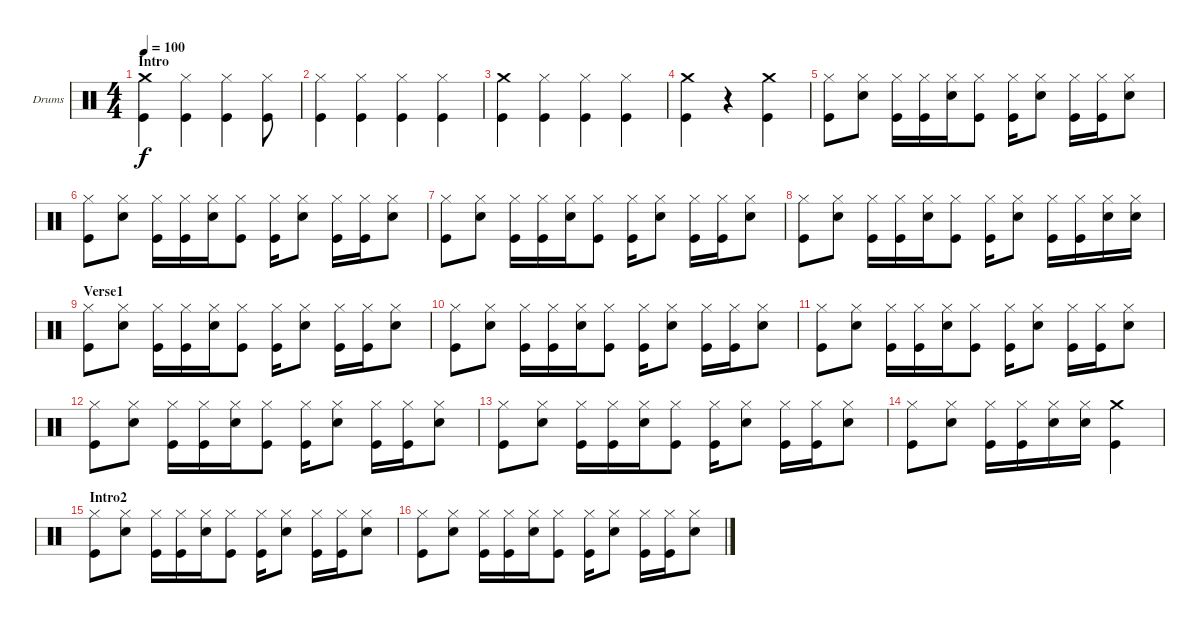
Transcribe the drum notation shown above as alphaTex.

\defaultSystemsLayout 4
\bracketExtendMode groupsimilarinstruments
\firstSystemTrackNameOrientation horizontal
\otherSystemsTrackNameOrientation horizontal
\track ("Drumkit" "Drums") {instrument percussion}
\staff {score}
\articulation defaults
\ts (4 4)
\section ("" "Intro")
\tempo 100
\clef neutral
\scale
0.474178
\ks c
("Crash medium (hit)" "Kick (hit)").4{dy f} ("Hi-Hat (closed)" "Kick (hit)").4 ("Hi-Hat (closed)" "Kick (hit)").4 ("Hi-Hat (closed)" "Kick (hit)").8 |
\scale
0.262911 ("Hi-Hat (closed)" "Kick (hit)").4 ("Hi-Hat (closed)" "Kick (hit)").4 ("Hi-Hat (closed)" "Kick (hit)").4 ("Hi-Hat (closed)" "Kick (hit)").4 |
\scale
0.262911 ("Crash medium (hit)" "Kick (hit)").4 ("Hi-Hat (closed)" "Kick (hit)").4 ("Hi-Hat (closed)" "Kick (hit)").4 ("Hi-Hat (closed)" "Kick (hit)").4 |
\scale
0.333333 ("Crash medium (hit)" "Kick (hit)").4 r.4 ("Crash medium (hit)" "Kick (hit)").4 |
\scale
0.333333 ("Hi-Hat (closed)" "Kick (hit)").8 ("Hi-Hat (closed)" "Snare (hit) 2").8 ("Hi-Hat (closed)" "Kick (hit)").16 ("Hi-Hat (closed)" "Kick (hit)").16 ("Hi-Hat (closed)" "Snare (hit) 2").16 ("Hi-Hat (closed)" "Kick (hit)").8 ("Hi-Hat (closed)" "Kick (hit)").16 ("Hi-Hat (closed)" "Snare (hit) 2").8 ("Hi-Hat (closed)" "Kick (hit)").16 ("Hi-Hat (closed)" "Kick (hit)").16 ("Hi-Hat (closed)" "Snare (hit) 2").8 |
\scale
0.333333 ("Hi-Hat (closed)" "Kick (hit)").8 ("Hi-Hat (closed)" "Snare (hit) 2").8 ("Hi-Hat (closed)" "Kick (hit)").16 ("Hi-Hat (closed)" "Kick (hit)").16 ("Hi-Hat (closed)" "Snare (hit) 2").16 ("Hi-Hat (closed)" "Kick (hit)").8 ("Hi-Hat (closed)" "Kick (hit)").16 ("Hi-Hat (closed)" "Snare (hit) 2").8 ("Hi-Hat (closed)" "Kick (hit)").16 ("Hi-Hat (closed)" "Kick (hit)").16 ("Hi-Hat (closed)" "Snare (hit) 2").8 |
\scale
0.333333 ("Hi-Hat (closed)" "Kick (hit)").8 ("Hi-Hat (closed)" "Snare (hit) 2").8 ("Hi-Hat (closed)" "Kick (hit)").16 ("Hi-Hat (closed)" "Kick (hit)").16 ("Hi-Hat (closed)" "Snare (hit) 2").16 ("Hi-Hat (closed)" "Kick (hit)").8 ("Hi-Hat (closed)" "Kick (hit)").16 ("Hi-Hat (closed)" "Snare (hit) 2").8 ("Hi-Hat (closed)" "Kick (hit)").16 ("Hi-Hat (closed)" "Kick (hit)").16 ("Hi-Hat (closed)" "Snare (hit) 2").8 |
\scale
0.333333 ("Hi-Hat (closed)" "Kick (hit)").8 ("Hi-Hat (closed)" "Snare (hit) 2").8 ("Hi-Hat (closed)" "Kick (hit)").16 ("Hi-Hat (closed)" "Kick (hit)").16 ("Hi-Hat (closed)" "Snare (hit) 2").16 ("Hi-Hat (closed)" "Kick (hit)").8 ("Hi-Hat (closed)" "Kick (hit)").16 ("Hi-Hat (closed)" "Snare (hit) 2").8 ("Hi-Hat (closed)" "Kick (hit)").16 ("Hi-Hat (closed)" "Kick (hit)").16 ("Hi-Hat (closed)" "Snare (hit) 2").16 ("Hi-Hat (closed)" "Snare (hit) 2").16 |
\section ("" "Verse1")
\scale
0.333333 ("Hi-Hat (closed)" "Kick (hit)").8 ("Hi-Hat (closed)" "Snare (hit) 2").8 ("Hi-Hat (closed)" "Kick (hit)").16 ("Hi-Hat (closed)" "Kick (hit)").16 ("Hi-Hat (closed)" "Snare (hit) 2").16 ("Hi-Hat (closed)" "Kick (hit)").8 ("Hi-Hat (closed)" "Kick (hit)").16 ("Hi-Hat (closed)" "Snare (hit) 2").8 ("Hi-Hat (closed)" "Kick (hit)").16 ("Hi-Hat (closed)" "Kick (hit)").16 ("Hi-Hat (closed)" "Snare (hit) 2").8 |
\scale
0.333333 ("Hi-Hat (closed)" "Kick (hit)").8 ("Hi-Hat (closed)" "Snare (hit) 2").8 ("Hi-Hat (closed)" "Kick (hit)").16 ("Hi-Hat (closed)" "Kick (hit)").16 ("Hi-Hat (closed)" "Snare (hit) 2").16 ("Hi-Hat (closed)" "Kick (hit)").8 ("Hi-Hat (closed)" "Kick (hit)").16 ("Hi-Hat (closed)" "Snare (hit) 2").8 ("Hi-Hat (closed)" "Kick (hit)").16 ("Hi-Hat (closed)" "Kick (hit)").16 ("Hi-Hat (closed)" "Snare (hit) 2").8 |
\scale
0.333333 ("Hi-Hat (closed)" "Kick (hit)").8 ("Hi-Hat (closed)" "Snare (hit) 2").8 ("Hi-Hat (closed)" "Kick (hit)").16 ("Hi-Hat (closed)" "Kick (hit)").16 ("Hi-Hat (closed)" "Snare (hit) 2").16 ("Hi-Hat (closed)" "Kick (hit)").8 ("Hi-Hat (closed)" "Kick (hit)").16 ("Hi-Hat (closed)" "Snare (hit) 2").8 ("Hi-Hat (closed)" "Kick (hit)").16 ("Hi-Hat (closed)" "Kick (hit)").16 ("Hi-Hat (closed)" "Snare (hit) 2").8 |
\scale
0.333333 ("Hi-Hat (closed)" "Kick (hit)").8 ("Hi-Hat (closed)" "Snare (hit) 2").8 ("Hi-Hat (closed)" "Kick (hit)").16 ("Hi-Hat (closed)" "Kick (hit)").16 ("Hi-Hat (closed)" "Snare (hit) 2").16 ("Hi-Hat (closed)" "Kick (hit)").8 ("Hi-Hat (closed)" "Kick (hit)").16 ("Hi-Hat (closed)" "Snare (hit) 2").8 ("Hi-Hat (closed)" "Kick (hit)").16 ("Hi-Hat (closed)" "Kick (hit)").16 ("Hi-Hat (closed)" "Snare (hit) 2").8 |
\scale
0.333333 ("Hi-Hat (closed)" "Kick (hit)").8 ("Hi-Hat (closed)" "Snare (hit) 2").8 ("Hi-Hat (closed)" "Kick (hit)").16 ("Hi-Hat (closed)" "Kick (hit)").16 ("Hi-Hat (closed)" "Snare (hit) 2").16 ("Hi-Hat (closed)" "Kick (hit)").8 ("Hi-Hat (closed)" "Kick (hit)").16 ("Hi-Hat (closed)" "Snare (hit) 2").8 ("Hi-Hat (closed)" "Kick (hit)").16 ("Hi-Hat (closed)" "Kick (hit)").16 ("Hi-Hat (closed)" "Snare (hit) 2").8 |
\scale
0.333333 ("Hi-Hat (closed)" "Kick (hit)").8 ("Hi-Hat (closed)" "Snare (hit) 2").8 ("Hi-Hat (closed)" "Kick (hit)").16 ("Hi-Hat (closed)" "Kick (hit)").16 ("Hi-Hat (closed)" "Snare (hit) 2").16 ("Hi-Hat (closed)" "Snare (hit) 2").16 ("Crash medium (hit)" "Kick (hit)").4 |
\section ("" "Intro2")
\scale
0.333333 ("Hi-Hat (closed)" "Kick (hit)").8 ("Hi-Hat (closed)" "Snare (hit) 2").8 ("Hi-Hat (closed)" "Kick (hit)").16 ("Hi-Hat (closed)" "Kick (hit)").16 ("Hi-Hat (closed)" "Snare (hit) 2").16 ("Hi-Hat (closed)" "Kick (hit)").8 ("Hi-Hat (closed)" "Kick (hit)").16 ("Hi-Hat (closed)" "Snare (hit) 2").8 ("Hi-Hat (closed)" "Kick (hit)").16 ("Hi-Hat (closed)" "Kick (hit)").16 ("Hi-Hat (closed)" "Snare (hit) 2").8 |
\scale
0.333333 ("Hi-Hat (closed)" "Kick (hit)").8 ("Hi-Hat (closed)" "Snare (hit) 2").8 ("Hi-Hat (closed)" "Kick (hit)").16 ("Hi-Hat (closed)" "Kick (hit)").16 ("Hi-Hat (closed)" "Snare (hit) 2").16 ("Hi-Hat (closed)" "Kick (hit)").8 ("Hi-Hat (closed)" "Kick (hit)").16 ("Hi-Hat (closed)" "Snare (hit) 2").8 ("Hi-Hat (closed)" "Kick (hit)").16 ("Hi-Hat (closed)" "Kick (hit)").16 ("Hi-Hat (closed)" "Snare (hit) 2").8
